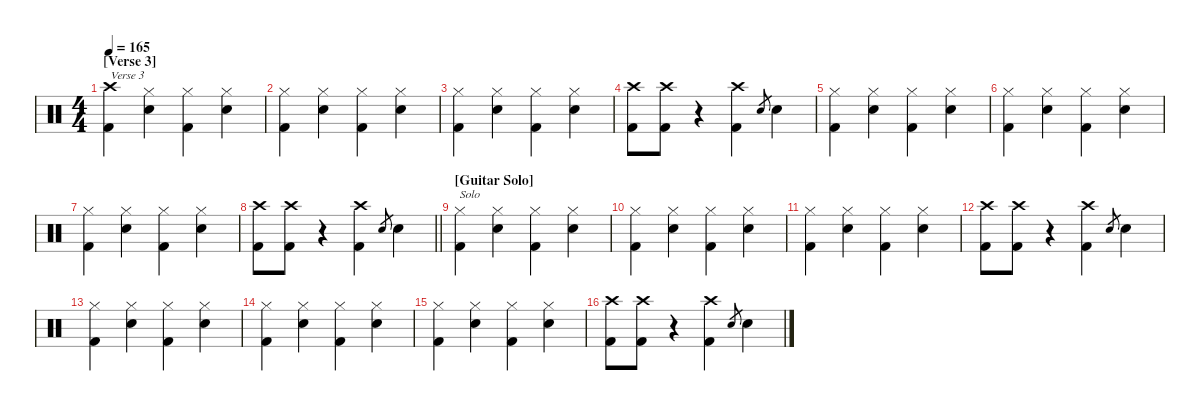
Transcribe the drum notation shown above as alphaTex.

\defaultSystemsLayout 4
\hideDynamics
\bracketExtendMode nobrackets
\singleTrackTrackNamePolicy hidden
\multiTrackTrackNamePolicy hidden
\firstSystemTrackNameMode fullname
\firstSystemTrackNameOrientation horizontal
\otherSystemsTrackNameOrientation horizontal
\track ("drums" "drm.") {instrument percussion}
\staff {score}
\articulation defaults
\ts (4 4)
\section ("" "[Verse 3]")
\tempo 165
\clef neutral
\ks c
("Crash high (hit)" "Kick (hit) 2").4{txt "Verse 3" dy fff beam Down} ("Hi-Hat (closed)" "Snare (hit) 2").4{dy f beam Down} ("Hi-Hat (closed)" "Kick (hit) 2").4{beam Down} ("Hi-Hat (closed)" "Snare (hit) 2").4{beam Down} |
("Hi-Hat (closed)" "Kick (hit) 2").4{beam Down} ("Hi-Hat (closed)" "Snare (hit) 2").4{beam Down} ("Hi-Hat (closed)" "Kick (hit) 2").4{beam Down} ("Hi-Hat (closed)" "Snare (hit) 2").4{beam Down} |
("Hi-Hat (closed)" "Kick (hit) 2").4{beam Down} ("Hi-Hat (closed)" "Snare (hit) 2").4{beam Down} ("Hi-Hat (closed)" "Kick (hit) 2").4{beam Down} ("Hi-Hat (closed)" "Snare (hit) 2").4{beam Down} |
("Crash high (hit)" "Kick (hit) 2").8{dy fff beam Down} ("Crash high (hit)" "Kick (hit) 2").8{beam Down} r.4{beam Down} ("Crash high (hit)" "Kick (hit) 2").4{beam Down} "Snare (hit) 2".8{gr dy mf beam Up} "Snare (hit) 2".4{dy f beam Down} |
("Hi-Hat (closed)" "Kick (hit) 2").4{beam Down} ("Hi-Hat (closed)" "Snare (hit) 2").4{beam Down} ("Hi-Hat (closed)" "Kick (hit) 2").4{beam Down} ("Hi-Hat (closed)" "Snare (hit) 2").4{beam Down} |
("Hi-Hat (closed)" "Kick (hit) 2").4{beam Down} ("Hi-Hat (closed)" "Snare (hit) 2").4{beam Down} ("Hi-Hat (closed)" "Kick (hit) 2").4{beam Down} ("Hi-Hat (closed)" "Snare (hit) 2").4{beam Down} |
("Hi-Hat (closed)" "Kick (hit) 2").4{beam Down} ("Hi-Hat (closed)" "Snare (hit) 2").4{beam Down} ("Hi-Hat (closed)" "Kick (hit) 2").4{beam Down} ("Hi-Hat (closed)" "Snare (hit) 2").4{beam Down} |
\barLineRight lightlight
("Crash high (hit)" "Kick (hit) 2").8{dy fff beam Down} ("Crash high (hit)" "Kick (hit) 2").8{beam Down} r.4{beam Down} ("Crash high (hit)" "Kick (hit) 2").4{beam Down} "Snare (hit) 2".8{gr dy mf beam Up} "Snare (hit) 2".4{dy f beam Down} |
\section ("" "[Guitar Solo]")
("Hi-Hat (closed)" "Kick (hit) 2").4{txt "Solo" beam Down} ("Hi-Hat (closed)" "Snare (hit) 2").4{beam Down} ("Hi-Hat (closed)" "Kick (hit) 2").4{beam Down} ("Hi-Hat (closed)" "Snare (hit) 2").4{beam Down} |
("Hi-Hat (closed)" "Kick (hit) 2").4{beam Down} ("Hi-Hat (closed)" "Snare (hit) 2").4{beam Down} ("Hi-Hat (closed)" "Kick (hit) 2").4{beam Down} ("Hi-Hat (closed)" "Snare (hit) 2").4{beam Down} |
("Hi-Hat (closed)" "Kick (hit) 2").4{beam Down} ("Hi-Hat (closed)" "Snare (hit) 2").4{beam Down} ("Hi-Hat (closed)" "Kick (hit) 2").4{beam Down} ("Hi-Hat (closed)" "Snare (hit) 2").4{beam Down} |
("Crash high (hit)" "Kick (hit) 2").8{dy fff beam Down} ("Crash high (hit)" "Kick (hit) 2").8{beam Down} r.4{beam Down} ("Crash high (hit)" "Kick (hit) 2").4{beam Down} "Snare (hit) 2".8{gr dy mf beam Up} "Snare (hit) 2".4{dy f beam Down} |
("Hi-Hat (closed)" "Kick (hit) 2").4{beam Down} ("Hi-Hat (closed)" "Snare (hit) 2").4{beam Down} ("Hi-Hat (closed)" "Kick (hit) 2").4{beam Down} ("Hi-Hat (closed)" "Snare (hit) 2").4{beam Down} |
("Hi-Hat (closed)" "Kick (hit) 2").4{beam Down} ("Hi-Hat (closed)" "Snare (hit) 2").4{beam Down} ("Hi-Hat (closed)" "Kick (hit) 2").4{beam Down} ("Hi-Hat (closed)" "Snare (hit) 2").4{beam Down} |
("Hi-Hat (closed)" "Kick (hit) 2").4{beam Down} ("Hi-Hat (closed)" "Snare (hit) 2").4{beam Down} ("Hi-Hat (closed)" "Kick (hit) 2").4{beam Down} ("Hi-Hat (closed)" "Snare (hit) 2").4{beam Down} |
("Crash high (hit)" "Kick (hit) 2").8{dy fff beam Down} ("Crash high (hit)" "Kick (hit) 2").8{beam Down} r.4{beam Down} ("Crash high (hit)" "Kick (hit) 2").4{beam Down} "Snare (hit) 2".8{gr dy mf beam Up} "Snare (hit) 2".4{dy f beam Down}
